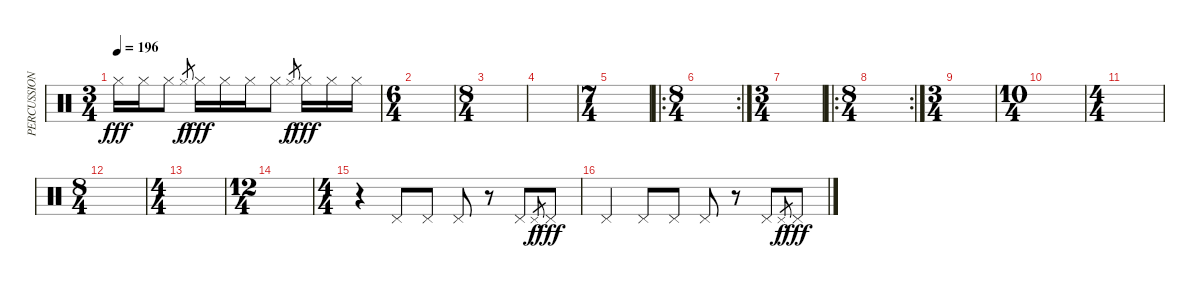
\track ("PERCUSSION" "PERCUSSION") {instrument percussion}
\staff {score}
\articulation defaults
\ts (3 4)
\tempo 196
\clef neutral
\ks c "Hi-Hat (closed)".16{dy fff} "Hi-Hat (closed)".16 "Hi-Hat (closed)".8 "Hi-Hat (closed)".8{gr dy f} "Hi-Hat (closed)".16{dy fff} "Hi-Hat (closed)".16 "Hi-Hat (closed)".16 "Hi-Hat (closed)".8 "Hi-Hat (closed)".8{gr dy f} "Hi-Hat (closed)".16{dy fff} "Hi-Hat (closed)".16 "Hi-Hat (closed)".16
|
\ts (6 4)
|
\ts (8 4)
|
|
\ts (7 4)
|
\ro
\rc 2
\ts (8 4)
|
\ts (3 4)
|
\ro
\rc 2
\ts (8 4)
|
\ts (3 4)
|
\ts (10 4)
|
\ts (4 4)
|
\ts (8 4)
|
\ts (4 4)
|
\ts (12 4)
|
\ts (4 4)
r.4 "Pedal Hi-Hat (hit)".8 "Pedal Hi-Hat (hit)".8 "Pedal Hi-Hat (hit)".8 r.8 "Pedal Hi-Hat (hit)".8 "Pedal Hi-Hat (hit)".8{gr dy f} "Pedal Hi-Hat (hit)".8{dy fff} |
"Pedal Hi-Hat (hit)".4 "Pedal Hi-Hat (hit)".8 "Pedal Hi-Hat (hit)".8 "Pedal Hi-Hat (hit)".8 r.8 "Pedal Hi-Hat (hit)".8 "Pedal Hi-Hat (hit)".8{gr dy f} "Pedal Hi-Hat (hit)".8{dy fff}
